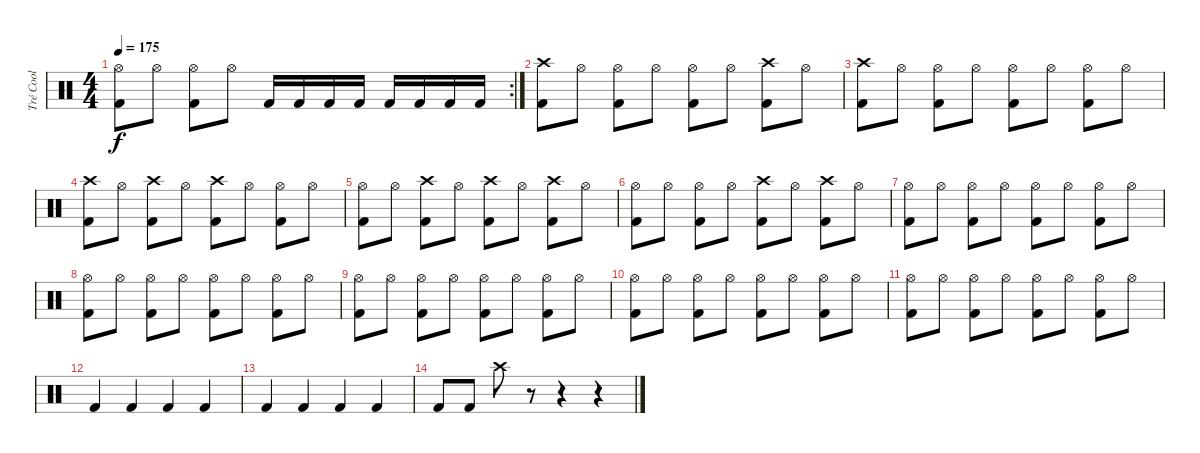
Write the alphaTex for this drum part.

\track ("Tré Cool" "Tré Cool") {instrument percussion}
\staff {score}
\articulation defaults
\rc 2
\ts (4 4)
\tempo 175
\clef neutral
\ks c
("Kick (hit) 2" "Hi-Hat (open)").8{dy f} "Hi-Hat (open)".8 ("Kick (hit) 2" "Hi-Hat (open)").8 "Hi-Hat (open)".8 "Kick (hit) 2".16 "Kick (hit) 2".16 "Kick (hit) 2".16 "Kick (hit) 2".16 "Kick (hit) 2".16 "Kick (hit) 2".16 "Kick (hit) 2".16 "Kick (hit) 2".16 |
("Kick (hit) 2" "Crash high (hit)").8 "Hi-Hat (open)".8 ("Kick (hit) 2" "Hi-Hat (open)").8 "Hi-Hat (open)".8 ("Kick (hit) 2" "Hi-Hat (open)").8 "Hi-Hat (open)".8 ("Kick (hit) 2" "Crash high (hit)").8 "Hi-Hat (open)".8 |
("Kick (hit) 2" "Crash high (hit)").8 "Hi-Hat (open)".8 ("Kick (hit) 2" "Hi-Hat (open)").8 "Hi-Hat (open)".8 ("Kick (hit) 2" "Hi-Hat (open)").8 "Hi-Hat (open)".8 ("Kick (hit) 2" "Hi-Hat (open)").8 "Hi-Hat (open)".8 |
("Kick (hit) 2" "Crash high (hit)").8 "Hi-Hat (open)".8 ("Kick (hit) 2" "Crash high (hit)").8 "Hi-Hat (open)".8 ("Kick (hit) 2" "Crash high (hit)").8 "Hi-Hat (open)".8 ("Kick (hit) 2" "Hi-Hat (open)").8 "Hi-Hat (open)".8 |
("Kick (hit) 2" "Hi-Hat (open)").8 "Hi-Hat (open)".8 ("Kick (hit) 2" "Crash high (hit)").8 "Hi-Hat (open)".8 ("Kick (hit) 2" "Crash high (hit)").8 "Hi-Hat (open)".8 ("Kick (hit) 2" "Crash high (hit)").8 "Hi-Hat (open)".8 |
("Kick (hit) 2" "Hi-Hat (open)").8 "Hi-Hat (open)".8 ("Kick (hit) 2" "Hi-Hat (open)").8 "Hi-Hat (open)".8 ("Kick (hit) 2" "Crash high (hit)").8 "Hi-Hat (open)".8 ("Kick (hit) 2" "Crash high (hit)").8 "Hi-Hat (open)".8 |
("Kick (hit) 2" "Hi-Hat (open)").8 "Hi-Hat (open)".8 ("Kick (hit) 2" "Hi-Hat (open)").8 "Hi-Hat (open)".8 ("Kick (hit) 2" "Hi-Hat (open)").8 "Hi-Hat (open)".8 ("Kick (hit) 2" "Hi-Hat (open)").8 "Hi-Hat (open)".8 |
("Kick (hit) 2" "Hi-Hat (open)").8 "Hi-Hat (open)".8 ("Kick (hit) 2" "Hi-Hat (open)").8 "Hi-Hat (open)".8 ("Kick (hit) 2" "Hi-Hat (open)").8 "Hi-Hat (open)".8 ("Kick (hit) 2" "Hi-Hat (open)").8 "Hi-Hat (open)".8 |
("Kick (hit) 2" "Hi-Hat (open)").8 "Hi-Hat (open)".8 ("Kick (hit) 2" "Hi-Hat (open)").8 "Hi-Hat (open)".8 ("Kick (hit) 2" "Hi-Hat (open)").8 "Hi-Hat (open)".8 ("Kick (hit) 2" "Hi-Hat (open)").8 "Hi-Hat (open)".8 |
("Kick (hit) 2" "Hi-Hat (open)").8 "Hi-Hat (open)".8 ("Kick (hit) 2" "Hi-Hat (open)").8 "Hi-Hat (open)".8 ("Kick (hit) 2" "Hi-Hat (open)").8 "Hi-Hat (open)".8 ("Kick (hit) 2" "Hi-Hat (open)").8 "Hi-Hat (open)".8 |
("Kick (hit) 2" "Hi-Hat (open)").8 "Hi-Hat (open)".8 ("Kick (hit) 2" "Hi-Hat (open)").8 "Hi-Hat (open)".8 ("Kick (hit) 2" "Hi-Hat (open)").8 "Hi-Hat (open)".8 ("Kick (hit) 2" "Hi-Hat (open)").8 "Hi-Hat (open)".8 |
"Kick (hit) 2".4 "Kick (hit) 2".4 "Kick (hit) 2".4 "Kick (hit) 2".4 |
"Kick (hit) 2".4 "Kick (hit) 2".4 "Kick (hit) 2".4 "Kick (hit) 2".4 |
"Kick (hit) 2".8 "Kick (hit) 2".8 "Crash high (hit)".8 r.8 r.4 r.4
